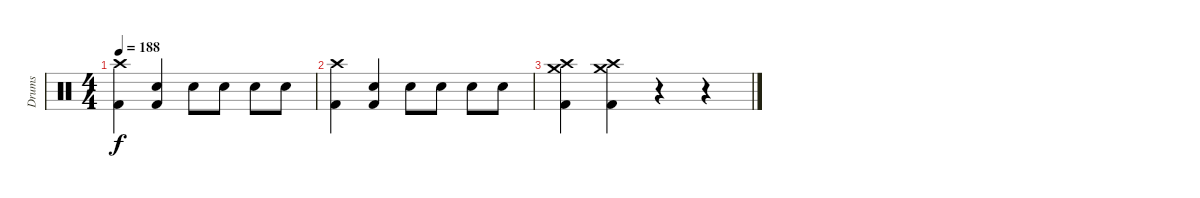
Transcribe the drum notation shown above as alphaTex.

\track ("Drums" "Drums") {instrument percussion}
\staff {score}
\articulation defaults
\ts (4 4)
\tempo 188
\clef neutral
\ks c
("Crash high (hit)" "Kick (hit) 2").4{dy f} ("Electric Snare (hit)" "Kick (hit) 2").4 "Electric Snare (hit)".8 "Electric Snare (hit)".8 "Electric Snare (hit)".8 "Electric Snare (hit)".8 |
("Crash high (hit)" "Kick (hit) 2").4 ("Electric Snare (hit)" "Kick (hit) 2").4 "Electric Snare (hit)".8 "Electric Snare (hit)".8 "Electric Snare (hit)".8 "Electric Snare (hit)".8 |
("Crash medium (hit)" "Crash high (hit)" "Kick (hit) 2").4 ("Crash medium (hit)" "Crash high (hit)" "Kick (hit) 2").4 r.4 r.4
